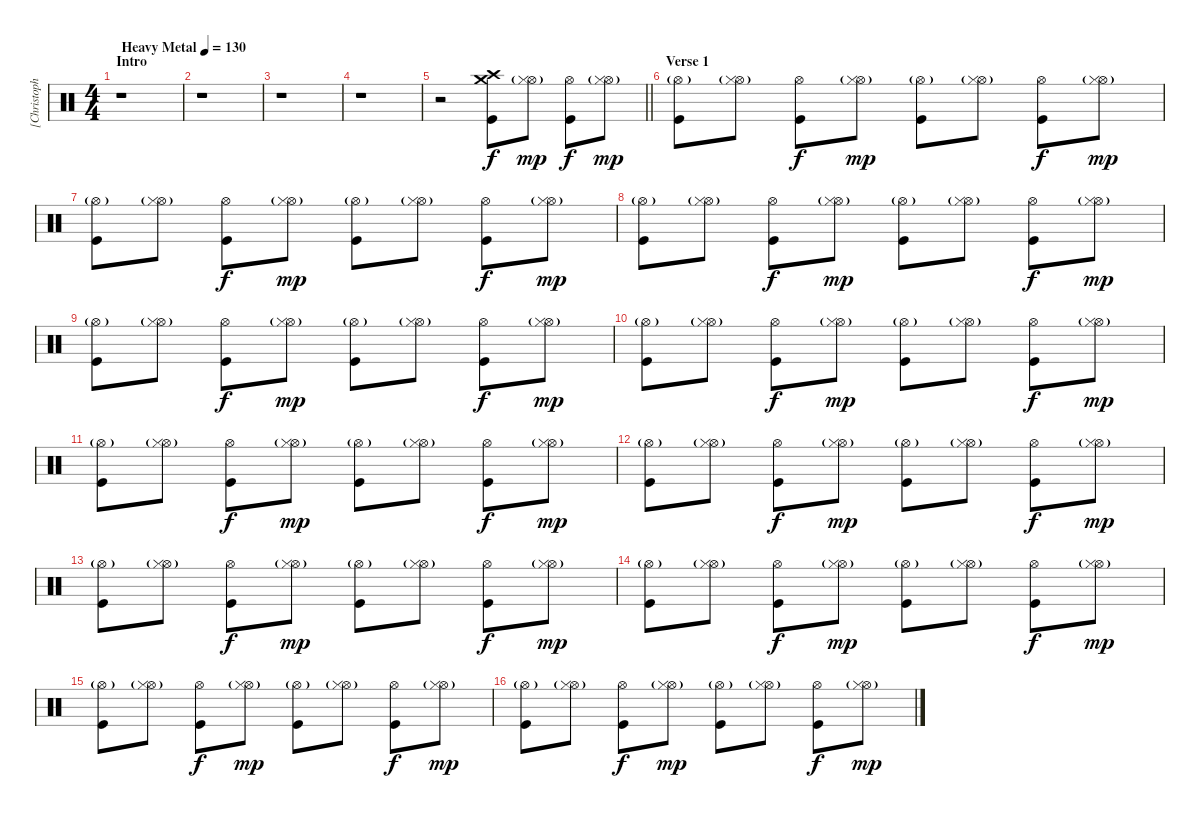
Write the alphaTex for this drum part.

\track ("[Christoph Schneider]  Drums" "[Christoph") {instrument percussion}
\staff {score}
\articulation defaults
\ts (4 4)
\section ("" "Intro")
\tempo (130 "Heavy Metal")
\clef neutral
\ks c
r.1{dy f} |
r.1 |
r.1 |
r.1 |
\barLineRight lightlight
r.2 ("Crash medium (hit)" "Crash high (hit)" "Kick (hit)").8 ("Hi-Hat (open)"{g} "Hi-Hat (closed)").8{dy mp} ("Hi-Hat (open)" "Kick (hit)").8{dy f} ("Hi-Hat (open)"{g} "Hi-Hat (closed)").8{dy mp} |
\section ("" "Verse 1")
("Hi-Hat (open)"{g} "Kick (hit)").8 ("Hi-Hat (open)"{g} "Hi-Hat (closed)").8 ("Hi-Hat (open)" "Kick (hit)").8{dy f} ("Hi-Hat (open)"{g} "Hi-Hat (closed)").8{dy mp} ("Hi-Hat (open)"{g} "Kick (hit)").8 ("Hi-Hat (open)"{g} "Hi-Hat (closed)").8 ("Hi-Hat (open)" "Kick (hit)").8{dy f} ("Hi-Hat (open)"{g} "Hi-Hat (closed)").8{dy mp} |
("Hi-Hat (open)"{g} "Kick (hit)").8 ("Hi-Hat (open)"{g} "Hi-Hat (closed)").8 ("Hi-Hat (open)" "Kick (hit)").8{dy f} ("Hi-Hat (open)"{g} "Hi-Hat (closed)").8{dy mp} ("Hi-Hat (open)"{g} "Kick (hit)").8 ("Hi-Hat (open)"{g} "Hi-Hat (closed)").8 ("Hi-Hat (open)" "Kick (hit)").8{dy f} ("Hi-Hat (open)"{g} "Hi-Hat (closed)").8{dy mp} |
("Hi-Hat (open)"{g} "Kick (hit)").8 ("Hi-Hat (open)"{g} "Hi-Hat (closed)").8 ("Hi-Hat (open)" "Kick (hit)").8{dy f} ("Hi-Hat (open)"{g} "Hi-Hat (closed)").8{dy mp} ("Hi-Hat (open)"{g} "Kick (hit)").8 ("Hi-Hat (open)"{g} "Hi-Hat (closed)").8 ("Hi-Hat (open)" "Kick (hit)").8{dy f} ("Hi-Hat (open)"{g} "Hi-Hat (closed)").8{dy mp} |
("Hi-Hat (open)"{g} "Kick (hit)").8 ("Hi-Hat (open)"{g} "Hi-Hat (closed)").8 ("Hi-Hat (open)" "Kick (hit)").8{dy f} ("Hi-Hat (open)"{g} "Hi-Hat (closed)").8{dy mp} ("Hi-Hat (open)"{g} "Kick (hit)").8 ("Hi-Hat (open)"{g} "Hi-Hat (closed)").8 ("Hi-Hat (open)" "Kick (hit)").8{dy f} ("Hi-Hat (open)"{g} "Hi-Hat (closed)").8{dy mp} |
("Hi-Hat (open)"{g} "Kick (hit)").8 ("Hi-Hat (open)"{g} "Hi-Hat (closed)").8 ("Hi-Hat (open)" "Kick (hit)").8{dy f} ("Hi-Hat (open)"{g} "Hi-Hat (closed)").8{dy mp} ("Hi-Hat (open)"{g} "Kick (hit)").8 ("Hi-Hat (open)"{g} "Hi-Hat (closed)").8 ("Hi-Hat (open)" "Kick (hit)").8{dy f} ("Hi-Hat (open)"{g} "Hi-Hat (closed)").8{dy mp} |
("Hi-Hat (open)"{g} "Kick (hit)").8 ("Hi-Hat (open)"{g} "Hi-Hat (closed)").8 ("Hi-Hat (open)" "Kick (hit)").8{dy f} ("Hi-Hat (open)"{g} "Hi-Hat (closed)").8{dy mp} ("Hi-Hat (open)"{g} "Kick (hit)").8 ("Hi-Hat (open)"{g} "Hi-Hat (closed)").8 ("Hi-Hat (open)" "Kick (hit)").8{dy f} ("Hi-Hat (open)"{g} "Hi-Hat (closed)").8{dy mp} |
("Hi-Hat (open)"{g} "Kick (hit)").8 ("Hi-Hat (open)"{g} "Hi-Hat (closed)").8 ("Hi-Hat (open)" "Kick (hit)").8{dy f} ("Hi-Hat (open)"{g} "Hi-Hat (closed)").8{dy mp} ("Hi-Hat (open)"{g} "Kick (hit)").8 ("Hi-Hat (open)"{g} "Hi-Hat (closed)").8 ("Hi-Hat (open)" "Kick (hit)").8{dy f} ("Hi-Hat (open)"{g} "Hi-Hat (closed)").8{dy mp} |
("Hi-Hat (open)"{g} "Kick (hit)").8 ("Hi-Hat (open)"{g} "Hi-Hat (closed)").8 ("Hi-Hat (open)" "Kick (hit)").8{dy f} ("Hi-Hat (open)"{g} "Hi-Hat (closed)").8{dy mp} ("Hi-Hat (open)"{g} "Kick (hit)").8 ("Hi-Hat (open)"{g} "Hi-Hat (closed)").8 ("Hi-Hat (open)" "Kick (hit)").8{dy f} ("Hi-Hat (open)"{g} "Hi-Hat (closed)").8{dy mp} |
("Hi-Hat (open)"{g} "Kick (hit)").8 ("Hi-Hat (open)"{g} "Hi-Hat (closed)").8 ("Hi-Hat (open)" "Kick (hit)").8{dy f} ("Hi-Hat (open)"{g} "Hi-Hat (closed)").8{dy mp} ("Hi-Hat (open)"{g} "Kick (hit)").8 ("Hi-Hat (open)"{g} "Hi-Hat (closed)").8 ("Hi-Hat (open)" "Kick (hit)").8{dy f} ("Hi-Hat (open)"{g} "Hi-Hat (closed)").8{dy mp} |
("Hi-Hat (open)"{g} "Kick (hit)").8 ("Hi-Hat (open)"{g} "Hi-Hat (closed)").8 ("Hi-Hat (open)" "Kick (hit)").8{dy f} ("Hi-Hat (open)"{g} "Hi-Hat (closed)").8{dy mp} ("Hi-Hat (open)"{g} "Kick (hit)").8 ("Hi-Hat (open)"{g} "Hi-Hat (closed)").8 ("Hi-Hat (open)" "Kick (hit)").8{dy f} ("Hi-Hat (open)"{g} "Hi-Hat (closed)").8{dy mp} |
("Hi-Hat (open)"{g} "Kick (hit)").8 ("Hi-Hat (open)"{g} "Hi-Hat (closed)").8 ("Hi-Hat (open)" "Kick (hit)").8{dy f} ("Hi-Hat (open)"{g} "Hi-Hat (closed)").8{dy mp} ("Hi-Hat (open)"{g} "Kick (hit)").8 ("Hi-Hat (open)"{g} "Hi-Hat (closed)").8 ("Hi-Hat (open)" "Kick (hit)").8{dy f} ("Hi-Hat (open)"{g} "Hi-Hat (closed)").8{dy mp}
